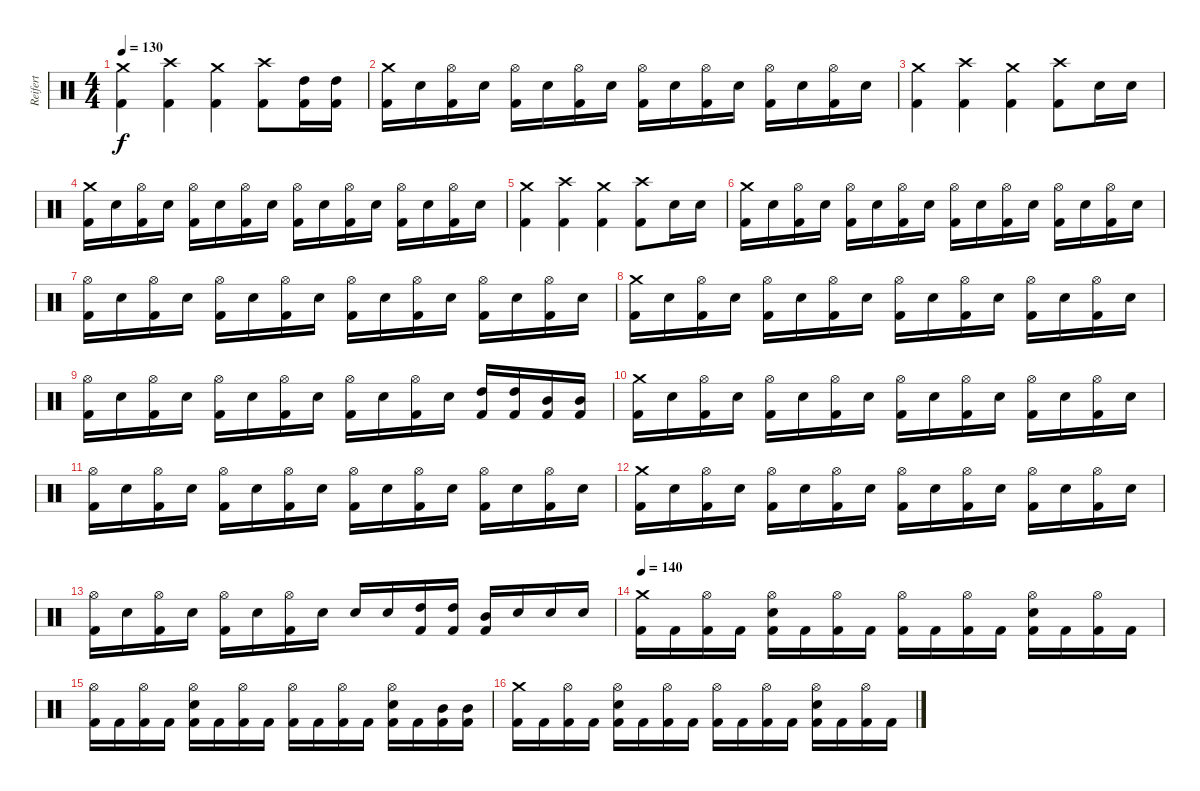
\track ("Reifert" "Reifert") {instrument percussion}
\staff {score}
\articulation defaults
\ts (4 4)
\tempo 130
\clef neutral
\ks c
("Crash medium (hit)" "Kick (hit) 2").4{dy f} ("Crash high (hit)" "Kick (hit) 2").4 ("Crash medium (hit)" "Kick (hit) 2").4 ("Crash high (hit)" "Kick (hit) 2").8 ("High Tom (hit)" "Kick (hit) 2").16 ("High Tom (hit)" "Kick (hit) 2").16 |
("Crash medium (hit)" "Kick (hit) 2").16 "Electric Snare (hit)".16 ("Hi-Hat (open)" "Kick (hit) 2").16 "Electric Snare (hit)".16 ("Hi-Hat (open)" "Kick (hit) 2").16 "Electric Snare (hit)".16 ("Hi-Hat (open)" "Kick (hit) 2").16 "Electric Snare (hit)".16 ("Hi-Hat (open)" "Kick (hit) 2").16 "Electric Snare (hit)".16 ("Hi-Hat (open)" "Kick (hit) 2").16 "Electric Snare (hit)".16 ("Hi-Hat (open)" "Kick (hit) 2").16 "Electric Snare (hit)".16 ("Hi-Hat (open)" "Kick (hit) 2").16 "Electric Snare (hit)".16 |
("Crash medium (hit)" "Kick (hit) 2").4 ("Crash high (hit)" "Kick (hit) 2").4 ("Crash medium (hit)" "Kick (hit) 2").4 ("Crash high (hit)" "Kick (hit) 2").8 "Electric Snare (hit)".16 "Electric Snare (hit)".16 |
("Crash medium (hit)" "Kick (hit) 2").16 "Electric Snare (hit)".16 ("Hi-Hat (open)" "Kick (hit) 2").16 "Electric Snare (hit)".16 ("Hi-Hat (open)" "Kick (hit) 2").16 "Electric Snare (hit)".16 ("Hi-Hat (open)" "Kick (hit) 2").16 "Electric Snare (hit)".16 ("Hi-Hat (open)" "Kick (hit) 2").16 "Electric Snare (hit)".16 ("Hi-Hat (open)" "Kick (hit) 2").16 "Electric Snare (hit)".16 ("Hi-Hat (open)" "Kick (hit) 2").16 "Electric Snare (hit)".16 ("Hi-Hat (open)" "Kick (hit) 2").16 "Electric Snare (hit)".16 |
("Crash medium (hit)" "Kick (hit) 2").4 ("Crash high (hit)" "Kick (hit) 2").4 ("Crash medium (hit)" "Kick (hit) 2").4 ("Crash high (hit)" "Kick (hit) 2").8 "Electric Snare (hit)".16 "Electric Snare (hit)".16 |
("Crash medium (hit)" "Kick (hit) 2").16 "Electric Snare (hit)".16 ("Hi-Hat (open)" "Kick (hit) 2").16 "Electric Snare (hit)".16 ("Hi-Hat (open)" "Kick (hit) 2").16 "Electric Snare (hit)".16 ("Hi-Hat (open)" "Kick (hit) 2").16 "Electric Snare (hit)".16 ("Hi-Hat (open)" "Kick (hit) 2").16 "Electric Snare (hit)".16 ("Hi-Hat (open)" "Kick (hit) 2").16 "Electric Snare (hit)".16 ("Hi-Hat (open)" "Kick (hit) 2").16 "Electric Snare (hit)".16 ("Hi-Hat (open)" "Kick (hit) 2").16 "Electric Snare (hit)".16 |
("Hi-Hat (open)" "Kick (hit) 2").16 "Electric Snare (hit)".16 ("Hi-Hat (open)" "Kick (hit) 2").16 "Electric Snare (hit)".16 ("Hi-Hat (open)" "Kick (hit) 2").16 "Electric Snare (hit)".16 ("Hi-Hat (open)" "Kick (hit) 2").16 "Electric Snare (hit)".16 ("Hi-Hat (open)" "Kick (hit) 2").16 "Electric Snare (hit)".16 ("Hi-Hat (open)" "Kick (hit) 2").16 "Electric Snare (hit)".16 ("Hi-Hat (open)" "Kick (hit) 2").16 "Electric Snare (hit)".16 ("Hi-Hat (open)" "Kick (hit) 2").16 "Electric Snare (hit)".16 |
("Crash medium (hit)" "Kick (hit) 2").16 "Electric Snare (hit)".16 ("Hi-Hat (open)" "Kick (hit) 2").16 "Electric Snare (hit)".16 ("Hi-Hat (open)" "Kick (hit) 2").16 "Electric Snare (hit)".16 ("Hi-Hat (open)" "Kick (hit) 2").16 "Electric Snare (hit)".16 ("Hi-Hat (open)" "Kick (hit) 2").16 "Electric Snare (hit)".16 ("Hi-Hat (open)" "Kick (hit) 2").16 "Electric Snare (hit)".16 ("Hi-Hat (open)" "Kick (hit) 2").16 "Electric Snare (hit)".16 ("Hi-Hat (open)" "Kick (hit) 2").16 "Electric Snare (hit)".16 |
("Hi-Hat (open)" "Kick (hit) 2").16 "Electric Snare (hit)".16 ("Hi-Hat (open)" "Kick (hit) 2").16 "Electric Snare (hit)".16 ("Hi-Hat (open)" "Kick (hit) 2").16 "Electric Snare (hit)".16 ("Hi-Hat (open)" "Kick (hit) 2").16 "Electric Snare (hit)".16 ("Hi-Hat (open)" "Kick (hit) 2").16 "Electric Snare (hit)".16 ("Hi-Hat (open)" "Kick (hit) 2").16 "Electric Snare (hit)".16 ("High Tom (hit)" "Kick (hit) 2").16 ("High Tom (hit)" "Kick (hit) 2").16 ("Mid Tom (hit)" "Kick (hit) 2").16 ("Mid Tom (hit)" "Kick (hit) 2").16 |
("Crash medium (hit)" "Kick (hit) 2").16 "Electric Snare (hit)".16 ("Hi-Hat (open)" "Kick (hit) 2").16 "Electric Snare (hit)".16 ("Hi-Hat (open)" "Kick (hit) 2").16 "Electric Snare (hit)".16 ("Hi-Hat (open)" "Kick (hit) 2").16 "Electric Snare (hit)".16 ("Hi-Hat (open)" "Kick (hit) 2").16 "Electric Snare (hit)".16 ("Hi-Hat (open)" "Kick (hit) 2").16 "Electric Snare (hit)".16 ("Hi-Hat (open)" "Kick (hit) 2").16 "Electric Snare (hit)".16 ("Hi-Hat (open)" "Kick (hit) 2").16 "Electric Snare (hit)".16 |
("Hi-Hat (open)" "Kick (hit) 2").16 "Electric Snare (hit)".16 ("Hi-Hat (open)" "Kick (hit) 2").16 "Electric Snare (hit)".16 ("Hi-Hat (open)" "Kick (hit) 2").16 "Electric Snare (hit)".16 ("Hi-Hat (open)" "Kick (hit) 2").16 "Electric Snare (hit)".16 ("Hi-Hat (open)" "Kick (hit) 2").16 "Electric Snare (hit)".16 ("Hi-Hat (open)" "Kick (hit) 2").16 "Electric Snare (hit)".16 ("Hi-Hat (open)" "Kick (hit) 2").16 "Electric Snare (hit)".16 ("Hi-Hat (open)" "Kick (hit) 2").16 "Electric Snare (hit)".16 |
("Crash medium (hit)" "Kick (hit) 2").16 "Electric Snare (hit)".16 ("Hi-Hat (open)" "Kick (hit) 2").16 "Electric Snare (hit)".16 ("Hi-Hat (open)" "Kick (hit) 2").16 "Electric Snare (hit)".16 ("Hi-Hat (open)" "Kick (hit) 2").16 "Electric Snare (hit)".16 ("Hi-Hat (open)" "Kick (hit) 2").16 "Electric Snare (hit)".16 ("Hi-Hat (open)" "Kick (hit) 2").16 "Electric Snare (hit)".16 ("Hi-Hat (open)" "Kick (hit) 2").16 "Electric Snare (hit)".16 ("Hi-Hat (open)" "Kick (hit) 2").16 "Electric Snare (hit)".16 |
("Hi-Hat (open)" "Kick (hit) 2").16 "Electric Snare (hit)".16 ("Hi-Hat (open)" "Kick (hit) 2").16 "Electric Snare (hit)".16 ("Hi-Hat (open)" "Kick (hit) 2").16 "Electric Snare (hit)".16 ("Hi-Hat (open)" "Kick (hit) 2").16 "Electric Snare (hit)".16 "Electric Snare (hit)".16 "Electric Snare (hit)".16 ("High Tom (hit)" "Kick (hit) 2").16 ("High Tom (hit)" "Kick (hit) 2").16 ("Mid Tom (hit)" "Kick (hit) 2").16 "Electric Snare (hit)".16 "Electric Snare (hit)".16 "Electric Snare (hit)".16 |
\tempo 140
("Crash medium (hit)" "Kick (hit) 2").16 "Kick (hit) 2".16 ("Hi-Hat (open)" "Kick (hit) 2").16 "Kick (hit) 2".16 ("Hi-Hat (open)" "Electric Snare (hit)" "Kick (hit) 2").16 "Kick (hit) 2".16 ("Hi-Hat (open)" "Kick (hit) 2").16 "Kick (hit) 2".16 ("Hi-Hat (open)" "Kick (hit) 2").16 "Kick (hit) 2".16 ("Hi-Hat (open)" "Kick (hit) 2").16 "Kick (hit) 2".16 ("Hi-Hat (open)" "Electric Snare (hit)" "Kick (hit) 2").16 "Kick (hit) 2".16 ("Hi-Hat (open)" "Kick (hit) 2").16 "Kick (hit) 2".16 |
("Hi-Hat (open)" "Kick (hit) 2").16 "Kick (hit) 2".16 ("Hi-Hat (open)" "Kick (hit) 2").16 "Kick (hit) 2".16 ("Hi-Hat (open)" "Electric Snare (hit)" "Kick (hit) 2").16 "Kick (hit) 2".16 ("Hi-Hat (open)" "Kick (hit) 2").16 "Kick (hit) 2".16 ("Hi-Hat (open)" "Kick (hit) 2").16 "Kick (hit) 2".16 ("Hi-Hat (open)" "Kick (hit) 2").16 "Kick (hit) 2".16 ("Hi-Hat (open)" "Electric Snare (hit)" "Kick (hit) 2").16 "Kick (hit) 2".16 ("Mid Tom (hit)" "Kick (hit) 2").16 ("Mid Tom (hit)" "Kick (hit) 2").16 |
("Crash medium (hit)" "Kick (hit) 2").16 "Kick (hit) 2".16 ("Hi-Hat (open)" "Kick (hit) 2").16 "Kick (hit) 2".16 ("Hi-Hat (open)" "Electric Snare (hit)" "Kick (hit) 2").16 "Kick (hit) 2".16 ("Hi-Hat (open)" "Kick (hit) 2").16 "Kick (hit) 2".16 ("Hi-Hat (open)" "Kick (hit) 2").16 "Kick (hit) 2".16 ("Hi-Hat (open)" "Kick (hit) 2").16 "Kick (hit) 2".16 ("Hi-Hat (open)" "Electric Snare (hit)" "Kick (hit) 2").16 "Kick (hit) 2".16 ("Hi-Hat (open)" "Kick (hit) 2").16 "Kick (hit) 2".16
